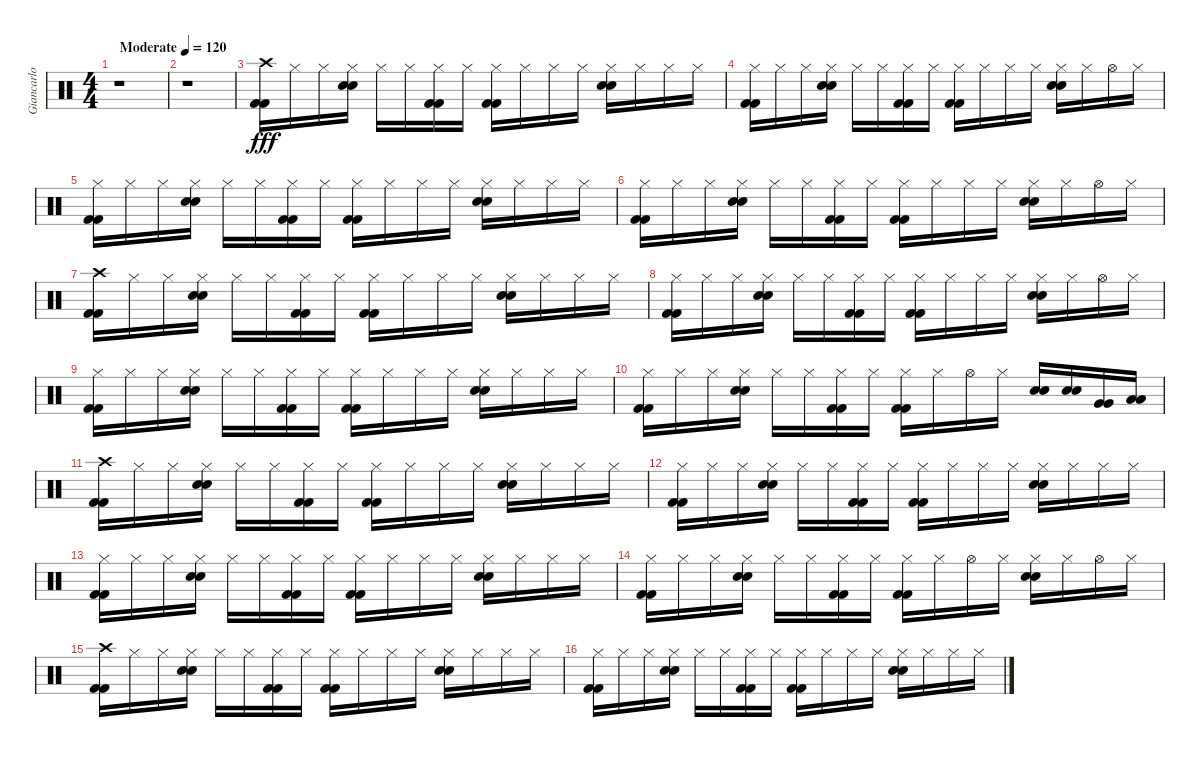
\track ("Giancarlo Autenzio - Drums" "Giancarlo ") {instrument percussion}
\staff {score}
\articulation defaults
\ts (4 4)
\tempo (120 "Moderate")
\tempo 100
\tempo (120 "Moderate")
\clef neutral
\ks c
r.1{dy fff} |
r.1 |
("Kick (hit) 2" "Kick (hit) 2" "Crash high (hit)").16 "Hi-Hat (closed)".16 "Hi-Hat (closed)".16 ("Electric Snare (hit)" "Electric Snare (hit)" "Hi-Hat (closed)").16 "Hi-Hat (closed)".16 "Hi-Hat (closed)".16 ("Kick (hit) 2" "Kick (hit) 2" "Hi-Hat (closed)").16 "Hi-Hat (closed)".16 ("Kick (hit) 2" "Kick (hit) 2" "Hi-Hat (closed)").16 "Hi-Hat (closed)".16 "Hi-Hat (closed)".16 "Hi-Hat (closed)".16 ("Electric Snare (hit)" "Electric Snare (hit)" "Hi-Hat (closed)").16 "Hi-Hat (closed)".16 "Hi-Hat (closed)".16 "Hi-Hat (closed)".16 |
("Kick (hit) 2" "Kick (hit) 2" "Hi-Hat (closed)").16 "Hi-Hat (closed)".16 "Hi-Hat (closed)".16 ("Electric Snare (hit)" "Electric Snare (hit)" "Hi-Hat (closed)").16 "Hi-Hat (closed)".16 "Hi-Hat (closed)".16 ("Kick (hit) 2" "Kick (hit) 2" "Hi-Hat (closed)").16 "Hi-Hat (closed)".16 ("Kick (hit) 2" "Kick (hit) 2" "Hi-Hat (closed)").16 "Hi-Hat (closed)".16 "Hi-Hat (closed)".16 "Hi-Hat (closed)".16 ("Electric Snare (hit)" "Electric Snare (hit)" "Hi-Hat (closed)").16 "Hi-Hat (closed)".16 "Hi-Hat (open)".16 "Hi-Hat (closed)".16 |
("Kick (hit) 2" "Kick (hit) 2" "Hi-Hat (closed)").16 "Hi-Hat (closed)".16 "Hi-Hat (closed)".16 ("Electric Snare (hit)" "Electric Snare (hit)" "Hi-Hat (closed)").16 "Hi-Hat (closed)".16 "Hi-Hat (closed)".16 ("Kick (hit) 2" "Kick (hit) 2" "Hi-Hat (closed)").16 "Hi-Hat (closed)".16 ("Kick (hit) 2" "Kick (hit) 2" "Hi-Hat (closed)").16 "Hi-Hat (closed)".16 "Hi-Hat (closed)".16 "Hi-Hat (closed)".16 ("Electric Snare (hit)" "Electric Snare (hit)" "Hi-Hat (closed)").16 "Hi-Hat (closed)".16 "Hi-Hat (closed)".16 "Hi-Hat (closed)".16 |
("Kick (hit) 2" "Kick (hit) 2" "Hi-Hat (closed)").16 "Hi-Hat (closed)".16 "Hi-Hat (closed)".16 ("Electric Snare (hit)" "Electric Snare (hit)" "Hi-Hat (closed)").16 "Hi-Hat (closed)".16 "Hi-Hat (closed)".16 ("Kick (hit) 2" "Kick (hit) 2" "Hi-Hat (closed)").16 "Hi-Hat (closed)".16 ("Kick (hit) 2" "Kick (hit) 2" "Hi-Hat (closed)").16 "Hi-Hat (closed)".16 "Hi-Hat (closed)".16 "Hi-Hat (closed)".16 ("Electric Snare (hit)" "Electric Snare (hit)" "Hi-Hat (closed)").16 "Hi-Hat (closed)".16 "Hi-Hat (open)".16 "Hi-Hat (closed)".16 |
("Kick (hit) 2" "Kick (hit) 2" "Crash high (hit)").16 "Hi-Hat (closed)".16 "Hi-Hat (closed)".16 ("Electric Snare (hit)" "Electric Snare (hit)" "Hi-Hat (closed)").16 "Hi-Hat (closed)".16 "Hi-Hat (closed)".16 ("Kick (hit) 2" "Kick (hit) 2" "Hi-Hat (closed)").16 "Hi-Hat (closed)".16 ("Kick (hit) 2" "Kick (hit) 2" "Hi-Hat (closed)").16 "Hi-Hat (closed)".16 "Hi-Hat (closed)".16 "Hi-Hat (closed)".16 ("Electric Snare (hit)" "Electric Snare (hit)" "Hi-Hat (closed)").16 "Hi-Hat (closed)".16 "Hi-Hat (closed)".16 "Hi-Hat (closed)".16 |
("Kick (hit) 2" "Kick (hit) 2" "Hi-Hat (closed)").16 "Hi-Hat (closed)".16 "Hi-Hat (closed)".16 ("Electric Snare (hit)" "Electric Snare (hit)" "Hi-Hat (closed)").16 "Hi-Hat (closed)".16 "Hi-Hat (closed)".16 ("Kick (hit) 2" "Kick (hit) 2" "Hi-Hat (closed)").16 "Hi-Hat (closed)".16 ("Kick (hit) 2" "Kick (hit) 2" "Hi-Hat (closed)").16 "Hi-Hat (closed)".16 "Hi-Hat (closed)".16 "Hi-Hat (closed)".16 ("Electric Snare (hit)" "Electric Snare (hit)" "Hi-Hat (closed)").16 "Hi-Hat (closed)".16 "Hi-Hat (open)".16 "Hi-Hat (closed)".16 |
("Kick (hit) 2" "Kick (hit) 2" "Hi-Hat (closed)").16 "Hi-Hat (closed)".16 "Hi-Hat (closed)".16 ("Electric Snare (hit)" "Electric Snare (hit)" "Hi-Hat (closed)").16 "Hi-Hat (closed)".16 "Hi-Hat (closed)".16 ("Kick (hit) 2" "Kick (hit) 2" "Hi-Hat (closed)").16 "Hi-Hat (closed)".16 ("Kick (hit) 2" "Kick (hit) 2" "Hi-Hat (closed)").16 "Hi-Hat (closed)".16 "Hi-Hat (closed)".16 "Hi-Hat (closed)".16 ("Electric Snare (hit)" "Electric Snare (hit)" "Hi-Hat (closed)").16 "Hi-Hat (closed)".16 "Hi-Hat (closed)".16 "Hi-Hat (closed)".16 |
("Kick (hit) 2" "Kick (hit) 2" "Hi-Hat (closed)").16 "Hi-Hat (closed)".16 "Hi-Hat (closed)".16 ("Electric Snare (hit)" "Electric Snare (hit)" "Hi-Hat (closed)").16 "Hi-Hat (closed)".16 "Hi-Hat (closed)".16 ("Kick (hit) 2" "Kick (hit) 2" "Hi-Hat (closed)").16 "Hi-Hat (closed)".16 ("Kick (hit) 2" "Kick (hit) 2" "Hi-Hat (closed)").16 "Hi-Hat (closed)".16 "Hi-Hat (open)".16 "Hi-Hat (closed)".16 ("Electric Snare (hit)" "Electric Snare (hit)").16 ("Electric Snare (hit)" "Electric Snare (hit)").16 ("Very Low Tom (hit)" "Very Low Tom (hit)").16 ("Low Floor Tom (hit)" "Low Floor Tom (hit)").16 |
("Kick (hit) 2" "Kick (hit) 2" "Crash high (hit)").16 "Hi-Hat (closed)".16 "Hi-Hat (closed)".16 ("Electric Snare (hit)" "Electric Snare (hit)" "Hi-Hat (closed)").16 "Hi-Hat (closed)".16 "Hi-Hat (closed)".16 ("Kick (hit) 2" "Kick (hit) 2" "Hi-Hat (closed)").16 "Hi-Hat (closed)".16 ("Kick (hit) 2" "Kick (hit) 2" "Hi-Hat (closed)").16 "Hi-Hat (closed)".16 "Hi-Hat (closed)".16 "Hi-Hat (closed)".16 ("Electric Snare (hit)" "Electric Snare (hit)" "Hi-Hat (closed)").16 "Hi-Hat (closed)".16 "Hi-Hat (closed)".16 "Hi-Hat (closed)".16 |
("Kick (hit) 2" "Kick (hit) 2" "Hi-Hat (closed)").16 "Hi-Hat (closed)".16 "Hi-Hat (closed)".16 ("Electric Snare (hit)" "Electric Snare (hit)" "Hi-Hat (closed)").16 "Hi-Hat (closed)".16 "Hi-Hat (closed)".16 ("Kick (hit) 2" "Kick (hit) 2" "Hi-Hat (closed)").16 "Hi-Hat (closed)".16 ("Kick (hit) 2" "Kick (hit) 2" "Hi-Hat (closed)").16 "Hi-Hat (closed)".16 "Hi-Hat (closed)".16 "Hi-Hat (closed)".16 ("Electric Snare (hit)" "Electric Snare (hit)" "Hi-Hat (closed)").16 "Hi-Hat (closed)".16 "Hi-Hat (closed)".16 "Hi-Hat (closed)".16 |
("Kick (hit) 2" "Kick (hit) 2" "Hi-Hat (closed)").16 "Hi-Hat (closed)".16 "Hi-Hat (closed)".16 ("Electric Snare (hit)" "Electric Snare (hit)" "Hi-Hat (closed)").16 "Hi-Hat (closed)".16 "Hi-Hat (closed)".16 ("Kick (hit) 2" "Kick (hit) 2" "Hi-Hat (closed)").16 "Hi-Hat (closed)".16 ("Kick (hit) 2" "Kick (hit) 2" "Hi-Hat (closed)").16 "Hi-Hat (closed)".16 "Hi-Hat (closed)".16 "Hi-Hat (closed)".16 ("Electric Snare (hit)" "Electric Snare (hit)" "Hi-Hat (closed)").16 "Hi-Hat (closed)".16 "Hi-Hat (closed)".16 "Hi-Hat (closed)".16 |
("Kick (hit) 2" "Kick (hit) 2" "Hi-Hat (closed)").16 "Hi-Hat (closed)".16 "Hi-Hat (closed)".16 ("Electric Snare (hit)" "Electric Snare (hit)" "Hi-Hat (closed)").16 "Hi-Hat (closed)".16 "Hi-Hat (closed)".16 ("Kick (hit) 2" "Kick (hit) 2" "Hi-Hat (closed)").16 "Hi-Hat (closed)".16 ("Kick (hit) 2" "Kick (hit) 2" "Hi-Hat (closed)").16 "Hi-Hat (closed)".16 "Hi-Hat (open)".16 "Hi-Hat (closed)".16 ("Electric Snare (hit)" "Electric Snare (hit)" "Hi-Hat (closed)").16 "Hi-Hat (closed)".16 "Hi-Hat (open)".16 "Hi-Hat (closed)".16 |
("Kick (hit) 2" "Kick (hit) 2" "Crash high (hit)").16 "Hi-Hat (closed)".16 "Hi-Hat (closed)".16 ("Electric Snare (hit)" "Electric Snare (hit)" "Hi-Hat (closed)").16 "Hi-Hat (closed)".16 "Hi-Hat (closed)".16 ("Kick (hit) 2" "Kick (hit) 2" "Hi-Hat (closed)").16 "Hi-Hat (closed)".16 ("Kick (hit) 2" "Kick (hit) 2" "Hi-Hat (closed)").16 "Hi-Hat (closed)".16 "Hi-Hat (closed)".16 "Hi-Hat (closed)".16 ("Electric Snare (hit)" "Electric Snare (hit)" "Hi-Hat (closed)").16 "Hi-Hat (closed)".16 "Hi-Hat (closed)".16 "Hi-Hat (closed)".16 |
("Kick (hit) 2" "Kick (hit) 2" "Hi-Hat (closed)").16 "Hi-Hat (closed)".16 "Hi-Hat (closed)".16 ("Electric Snare (hit)" "Electric Snare (hit)" "Hi-Hat (closed)").16 "Hi-Hat (closed)".16 "Hi-Hat (closed)".16 ("Kick (hit) 2" "Kick (hit) 2" "Hi-Hat (closed)").16 "Hi-Hat (closed)".16 ("Kick (hit) 2" "Kick (hit) 2" "Hi-Hat (closed)").16 "Hi-Hat (closed)".16 "Hi-Hat (closed)".16 "Hi-Hat (closed)".16 ("Electric Snare (hit)" "Electric Snare (hit)" "Hi-Hat (closed)").16 "Hi-Hat (closed)".16 "Hi-Hat (closed)".16 "Hi-Hat (closed)".16
